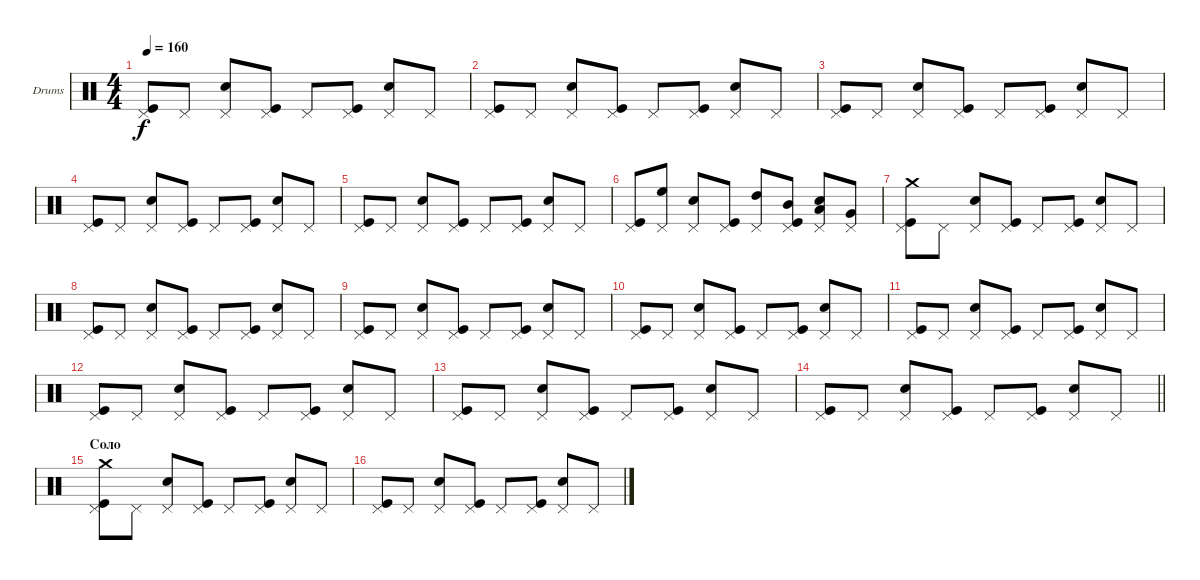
\bracketExtendMode groupsimilarinstruments
\firstSystemTrackNameOrientation horizontal
\otherSystemsTrackNameOrientation horizontal
\track ("Ударные" "Drums") {instrument percussion}
\staff {score}
\articulation defaults
\ts (4 4)
\tempo 160
\clef neutral
\ks c
("Pedal Hi-Hat (hit)" "Kick (hit)").8{dy f} "Pedal Hi-Hat (hit)".8 ("Pedal Hi-Hat (hit)" "Snare (hit) 2").8 ("Pedal Hi-Hat (hit)" "Kick (hit)").8 "Pedal Hi-Hat (hit)".8 ("Pedal Hi-Hat (hit)" "Kick (hit)").8 ("Pedal Hi-Hat (hit)" "Snare (hit) 2").8 "Pedal Hi-Hat (hit)".8 |
("Pedal Hi-Hat (hit)" "Kick (hit)").8 "Pedal Hi-Hat (hit)".8 ("Pedal Hi-Hat (hit)" "Snare (hit) 2").8 ("Pedal Hi-Hat (hit)" "Kick (hit)").8 "Pedal Hi-Hat (hit)".8 ("Pedal Hi-Hat (hit)" "Kick (hit)").8 ("Pedal Hi-Hat (hit)" "Snare (hit) 2").8 "Pedal Hi-Hat (hit)".8 |
("Pedal Hi-Hat (hit)" "Kick (hit)").8 "Pedal Hi-Hat (hit)".8 ("Pedal Hi-Hat (hit)" "Snare (hit) 2").8 ("Pedal Hi-Hat (hit)" "Kick (hit)").8 "Pedal Hi-Hat (hit)".8 ("Pedal Hi-Hat (hit)" "Kick (hit)").8 ("Pedal Hi-Hat (hit)" "Snare (hit) 2").8 "Pedal Hi-Hat (hit)".8 |
("Pedal Hi-Hat (hit)" "Kick (hit)").8 "Pedal Hi-Hat (hit)".8 ("Pedal Hi-Hat (hit)" "Snare (hit) 2").8 ("Pedal Hi-Hat (hit)" "Kick (hit)").8 "Pedal Hi-Hat (hit)".8 ("Pedal Hi-Hat (hit)" "Kick (hit)").8 ("Pedal Hi-Hat (hit)" "Snare (hit) 2").8 "Pedal Hi-Hat (hit)".8 |
("Pedal Hi-Hat (hit)" "Kick (hit)").8 "Pedal Hi-Hat (hit)".8 ("Pedal Hi-Hat (hit)" "Snare (hit) 2").8 ("Pedal Hi-Hat (hit)" "Kick (hit)").8 "Pedal Hi-Hat (hit)".8 ("Pedal Hi-Hat (hit)" "Kick (hit)").8 ("Pedal Hi-Hat (hit)" "Snare (hit) 2").8 "Pedal Hi-Hat (hit)".8 |
("Pedal Hi-Hat (hit)" "Kick (hit)").8 ("Pedal Hi-Hat (hit)" "High Floor Tom (hit)").8 ("Pedal Hi-Hat (hit)" "Snare (hit) 2").8 ("Pedal Hi-Hat (hit)" "Kick (hit)").8 ("Pedal Hi-Hat (hit)" "High Tom (hit)").8 ("Pedal Hi-Hat (hit)" "Mid Tom (hit)" "Kick (hit)").8 ("Pedal Hi-Hat (hit)" "Low Tom (hit)" "Snare (hit) 2").8 ("Pedal Hi-Hat (hit)" "Very Low Tom (hit)").8 |
("Pedal Hi-Hat (hit)" "Crash medium (hit)" "Kick (hit)").8 "Pedal Hi-Hat (hit)".8 ("Pedal Hi-Hat (hit)" "Snare (hit) 2").8 ("Pedal Hi-Hat (hit)" "Kick (hit)").8 "Pedal Hi-Hat (hit)".8 ("Pedal Hi-Hat (hit)" "Kick (hit)").8 ("Pedal Hi-Hat (hit)" "Snare (hit) 2").8 "Pedal Hi-Hat (hit)".8 |
("Pedal Hi-Hat (hit)" "Kick (hit)").8 "Pedal Hi-Hat (hit)".8 ("Pedal Hi-Hat (hit)" "Snare (hit) 2").8 ("Pedal Hi-Hat (hit)" "Kick (hit)").8 "Pedal Hi-Hat (hit)".8 ("Pedal Hi-Hat (hit)" "Kick (hit)").8 ("Pedal Hi-Hat (hit)" "Snare (hit) 2").8 "Pedal Hi-Hat (hit)".8 |
("Pedal Hi-Hat (hit)" "Kick (hit)").8 "Pedal Hi-Hat (hit)".8 ("Pedal Hi-Hat (hit)" "Snare (hit) 2").8 ("Pedal Hi-Hat (hit)" "Kick (hit)").8 "Pedal Hi-Hat (hit)".8 ("Pedal Hi-Hat (hit)" "Kick (hit)").8 ("Pedal Hi-Hat (hit)" "Snare (hit) 2").8 "Pedal Hi-Hat (hit)".8 |
("Pedal Hi-Hat (hit)" "Kick (hit)").8 "Pedal Hi-Hat (hit)".8 ("Pedal Hi-Hat (hit)" "Snare (hit) 2").8 ("Pedal Hi-Hat (hit)" "Kick (hit)").8 "Pedal Hi-Hat (hit)".8 ("Pedal Hi-Hat (hit)" "Kick (hit)").8 ("Pedal Hi-Hat (hit)" "Snare (hit) 2").8 "Pedal Hi-Hat (hit)".8 |
("Pedal Hi-Hat (hit)" "Kick (hit)").8 "Pedal Hi-Hat (hit)".8 ("Pedal Hi-Hat (hit)" "Snare (hit) 2").8 ("Pedal Hi-Hat (hit)" "Kick (hit)").8 "Pedal Hi-Hat (hit)".8 ("Pedal Hi-Hat (hit)" "Kick (hit)").8 ("Pedal Hi-Hat (hit)" "Snare (hit) 2").8 "Pedal Hi-Hat (hit)".8 |
("Pedal Hi-Hat (hit)" "Kick (hit)").8 "Pedal Hi-Hat (hit)".8 ("Pedal Hi-Hat (hit)" "Snare (hit) 2").8 ("Pedal Hi-Hat (hit)" "Kick (hit)").8 "Pedal Hi-Hat (hit)".8 ("Pedal Hi-Hat (hit)" "Kick (hit)").8 ("Pedal Hi-Hat (hit)" "Snare (hit) 2").8 "Pedal Hi-Hat (hit)".8 |
("Pedal Hi-Hat (hit)" "Kick (hit)").8 "Pedal Hi-Hat (hit)".8 ("Pedal Hi-Hat (hit)" "Snare (hit) 2").8 ("Pedal Hi-Hat (hit)" "Kick (hit)").8 "Pedal Hi-Hat (hit)".8 ("Pedal Hi-Hat (hit)" "Kick (hit)").8 ("Pedal Hi-Hat (hit)" "Snare (hit) 2").8 "Pedal Hi-Hat (hit)".8 |
\barLineRight lightlight
("Pedal Hi-Hat (hit)" "Kick (hit)").8 "Pedal Hi-Hat (hit)".8 ("Pedal Hi-Hat (hit)" "Snare (hit) 2").8 ("Pedal Hi-Hat (hit)" "Kick (hit)").8 "Pedal Hi-Hat (hit)".8 ("Pedal Hi-Hat (hit)" "Kick (hit)").8 ("Pedal Hi-Hat (hit)" "Snare (hit) 2").8 "Pedal Hi-Hat (hit)".8 |
\section ("" "Соло")
("Pedal Hi-Hat (hit)" "Crash medium (hit)" "Kick (hit)").8 "Pedal Hi-Hat (hit)".8 ("Pedal Hi-Hat (hit)" "Snare (hit) 2").8 ("Pedal Hi-Hat (hit)" "Kick (hit)").8 "Pedal Hi-Hat (hit)".8 ("Pedal Hi-Hat (hit)" "Kick (hit)").8 ("Pedal Hi-Hat (hit)" "Snare (hit) 2").8 "Pedal Hi-Hat (hit)".8 |
("Pedal Hi-Hat (hit)" "Kick (hit)").8 "Pedal Hi-Hat (hit)".8 ("Pedal Hi-Hat (hit)" "Snare (hit) 2").8 ("Pedal Hi-Hat (hit)" "Kick (hit)").8 "Pedal Hi-Hat (hit)".8 ("Pedal Hi-Hat (hit)" "Kick (hit)").8 ("Pedal Hi-Hat (hit)" "Snare (hit) 2").8 "Pedal Hi-Hat (hit)".8
